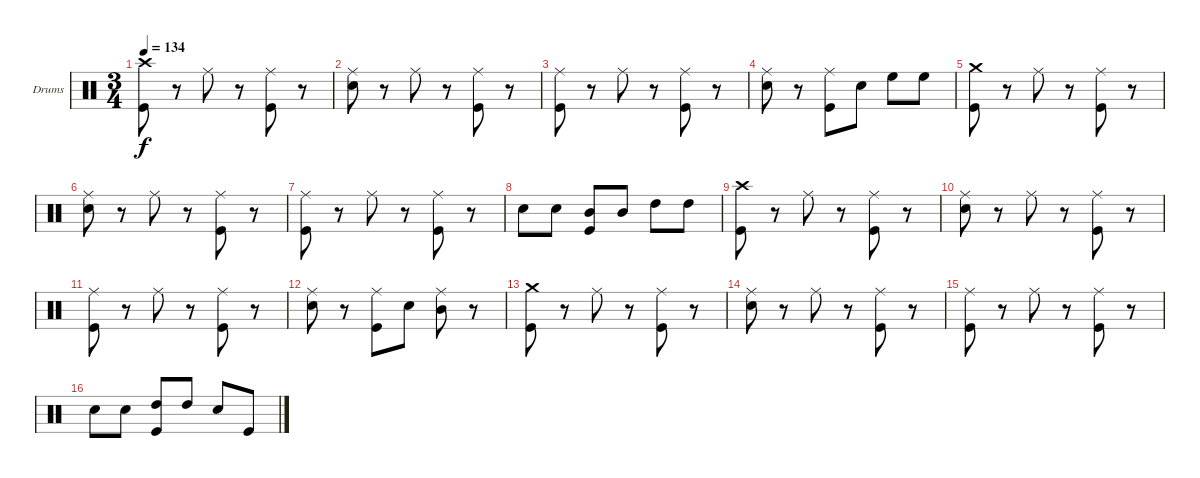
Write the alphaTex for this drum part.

\bracketExtendMode groupsimilarinstruments
\firstSystemTrackNameOrientation horizontal
\otherSystemsTrackNameOrientation horizontal
\track ("Drumkit" "Drums") {instrument percussion}
\staff {score}
\articulation defaults
\ts (3 4)
\tempo 134
\clef neutral
\ks c
("Kick (hit)" "Crash high (hit)").8{dy f} r.8 "Ride (middle)".8 r.8 ("Ride (middle)" "Kick (hit)").8 r.8 |
("Ride (middle)" "Snare (hit) 2").8 r.8 "Ride (middle)".8 r.8 ("Ride (middle)" "Kick (hit)").8 r.8 |
("Ride (middle)" "Kick (hit)").8 r.8 "Ride (middle)".8 r.8 ("Ride (middle)" "Kick (hit)").8 r.8 |
("Ride (middle)" "Snare (hit) 2").8 r.8 ("Ride (middle)" "Kick (hit)").8 "Snare (hit) 2".8 "High Floor Tom (hit)".8 "High Floor Tom (hit)".8 |
("Crash medium (hit)" "Kick (hit)").8 r.8 "Ride (middle)".8 r.8 ("Kick (hit)" "Ride (middle)").8 r.8 |
("Snare (hit) 2" "Ride (middle)").8 r.8 "Ride (middle)".8 r.8 ("Kick (hit)" "Ride (middle)").8 r.8 |
("Kick (hit)" "Ride (middle)").8 r.8 "Ride (middle)".8 r.8 ("Kick (hit)" "Ride (middle)").8 r.8 |
"Snare (hit) 2".8 "Snare (hit) 2".8 ("Mid Tom (hit)" "Kick (hit)").8 "Mid Tom (hit)".8 "High Tom (hit)".8 "High Tom (hit)".8 |
("Kick (hit)" "Crash high (hit)").8 r.8 "Ride (middle)".8 r.8 ("Ride (middle)" "Kick (hit)").8 r.8 |
("Ride (middle)" "Snare (hit) 2").8 r.8 "Ride (middle)".8 r.8 ("Ride (middle)" "Kick (hit)").8 r.8 |
("Ride (middle)" "Kick (hit)").8 r.8 "Ride (middle)".8 r.8 ("Ride (middle)" "Kick (hit)").8 r.8 |
("Snare (hit) 2" "Ride (middle)").8 r.8 ("Ride (middle)" "Kick (hit)").8 "Snare (hit) 2".8 ("Ride (middle)" "Mid Tom (hit)").8 r.8 |
("Crash medium (hit)" "Kick (hit)").8 r.8 "Ride (middle)".8 r.8 ("Kick (hit)" "Ride (middle)").8 r.8 |
("Snare (hit) 2" "Ride (middle)").8 r.8 "Ride (middle)".8 r.8 ("Ride (middle)" "Kick (hit)").8 r.8 |
("Kick (hit)" "Ride (middle)").8 r.8 "Ride (middle)".8 r.8 ("Ride (middle)" "Kick (hit)").8 r.8 |
"Snare (hit) 2".8 "Snare (hit) 2".8 ("High Tom (hit)" "Kick (hit)").8 "High Tom (hit)".8 "Snare (hit) 2".8 "Kick (hit)".8
